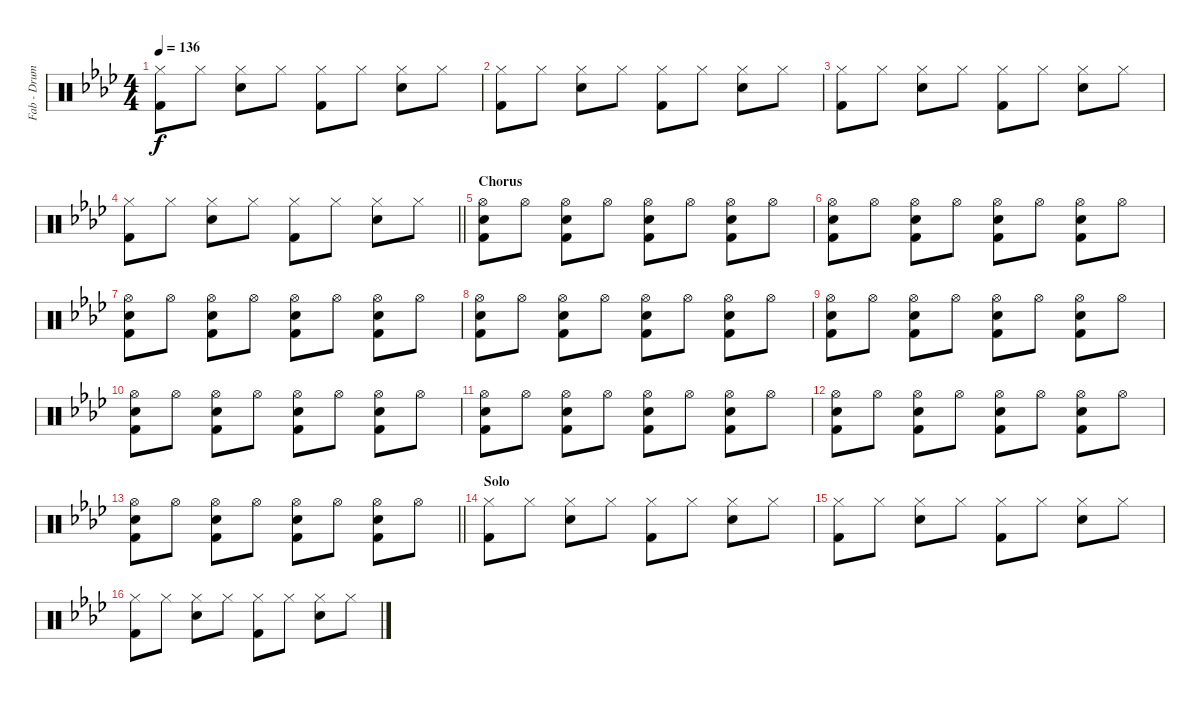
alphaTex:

\track ("Fab - Drums MIDI" "Fab - Drum") {instrument percussion}
\staff {score}
\articulation defaults
\ts (4 4)
\tempo 136
\clef neutral
\ks ab
("Hi-Hat (closed)" "Kick (hit) 2").8{dy f} "Hi-Hat (closed)".8 ("Hi-Hat (closed)" "Snare (hit) 2").8 "Hi-Hat (closed)".8 ("Hi-Hat (closed)" "Kick (hit) 2").8 "Hi-Hat (closed)".8 ("Hi-Hat (closed)" "Snare (hit) 2").8 "Hi-Hat (closed)".8 |
("Hi-Hat (closed)" "Kick (hit) 2").8 "Hi-Hat (closed)".8 ("Hi-Hat (closed)" "Snare (hit) 2").8 "Hi-Hat (closed)".8 ("Hi-Hat (closed)" "Kick (hit) 2").8 "Hi-Hat (closed)".8 ("Hi-Hat (closed)" "Snare (hit) 2").8 "Hi-Hat (closed)".8 |
("Hi-Hat (closed)" "Kick (hit) 2").8 "Hi-Hat (closed)".8 ("Hi-Hat (closed)" "Snare (hit) 2").8 "Hi-Hat (closed)".8 ("Hi-Hat (closed)" "Kick (hit) 2").8 "Hi-Hat (closed)".8 ("Hi-Hat (closed)" "Snare (hit) 2").8 "Hi-Hat (closed)".8 |
\barLineRight lightlight
("Hi-Hat (closed)" "Kick (hit) 2").8 "Hi-Hat (closed)".8 ("Hi-Hat (closed)" "Snare (hit) 2").8 "Hi-Hat (closed)".8 ("Hi-Hat (closed)" "Kick (hit) 2").8 "Hi-Hat (closed)".8 ("Hi-Hat (closed)" "Snare (hit) 2").8 "Hi-Hat (closed)".8 |
\section ("" "Chorus")
("Hi-Hat (open)" "Snare (hit) 2" "Kick (hit) 2").8 "Hi-Hat (open)".8 ("Hi-Hat (open)" "Snare (hit) 2" "Kick (hit) 2").8 "Hi-Hat (open)".8 ("Hi-Hat (open)" "Snare (hit) 2" "Kick (hit) 2").8 "Hi-Hat (open)".8 ("Hi-Hat (open)" "Snare (hit) 2" "Kick (hit) 2").8 "Hi-Hat (open)".8 |
("Hi-Hat (open)" "Snare (hit) 2" "Kick (hit) 2").8 "Hi-Hat (open)".8 ("Hi-Hat (open)" "Snare (hit) 2" "Kick (hit) 2").8 "Hi-Hat (open)".8 ("Hi-Hat (open)" "Snare (hit) 2" "Kick (hit) 2").8 "Hi-Hat (open)".8 ("Hi-Hat (open)" "Snare (hit) 2" "Kick (hit) 2").8 "Hi-Hat (open)".8 |
("Hi-Hat (open)" "Snare (hit) 2" "Kick (hit) 2").8 "Hi-Hat (open)".8 ("Hi-Hat (open)" "Snare (hit) 2" "Kick (hit) 2").8 "Hi-Hat (open)".8 ("Hi-Hat (open)" "Snare (hit) 2" "Kick (hit) 2").8 "Hi-Hat (open)".8 ("Hi-Hat (open)" "Snare (hit) 2" "Kick (hit) 2").8 "Hi-Hat (open)".8 |
("Hi-Hat (open)" "Snare (hit) 2" "Kick (hit) 2").8 "Hi-Hat (open)".8 ("Hi-Hat (open)" "Snare (hit) 2" "Kick (hit) 2").8 "Hi-Hat (open)".8 ("Hi-Hat (open)" "Snare (hit) 2" "Kick (hit) 2").8 "Hi-Hat (open)".8 ("Hi-Hat (open)" "Snare (hit) 2" "Kick (hit) 2").8 "Hi-Hat (open)".8 |
("Hi-Hat (open)" "Snare (hit) 2" "Kick (hit) 2").8 "Hi-Hat (open)".8 ("Hi-Hat (open)" "Snare (hit) 2" "Kick (hit) 2").8 "Hi-Hat (open)".8 ("Hi-Hat (open)" "Snare (hit) 2" "Kick (hit) 2").8 "Hi-Hat (open)".8 ("Hi-Hat (open)" "Snare (hit) 2" "Kick (hit) 2").8 "Hi-Hat (open)".8 |
("Hi-Hat (open)" "Snare (hit) 2" "Kick (hit) 2").8 "Hi-Hat (open)".8 ("Hi-Hat (open)" "Snare (hit) 2" "Kick (hit) 2").8 "Hi-Hat (open)".8 ("Hi-Hat (open)" "Snare (hit) 2" "Kick (hit) 2").8 "Hi-Hat (open)".8 ("Hi-Hat (open)" "Snare (hit) 2" "Kick (hit) 2").8 "Hi-Hat (open)".8 |
("Hi-Hat (open)" "Snare (hit) 2" "Kick (hit) 2").8 "Hi-Hat (open)".8 ("Hi-Hat (open)" "Snare (hit) 2" "Kick (hit) 2").8 "Hi-Hat (open)".8 ("Hi-Hat (open)" "Snare (hit) 2" "Kick (hit) 2").8 "Hi-Hat (open)".8 ("Hi-Hat (open)" "Snare (hit) 2" "Kick (hit) 2").8 "Hi-Hat (open)".8 |
("Hi-Hat (open)" "Snare (hit) 2" "Kick (hit) 2").8 "Hi-Hat (open)".8 ("Hi-Hat (open)" "Snare (hit) 2" "Kick (hit) 2").8 "Hi-Hat (open)".8 ("Hi-Hat (open)" "Snare (hit) 2" "Kick (hit) 2").8 "Hi-Hat (open)".8 ("Hi-Hat (open)" "Snare (hit) 2" "Kick (hit) 2").8 "Hi-Hat (open)".8 |
\barLineRight lightlight
("Hi-Hat (open)" "Snare (hit) 2" "Kick (hit) 2").8 "Hi-Hat (open)".8 ("Hi-Hat (open)" "Snare (hit) 2" "Kick (hit) 2").8 "Hi-Hat (open)".8 ("Hi-Hat (open)" "Snare (hit) 2" "Kick (hit) 2").8 "Hi-Hat (open)".8 ("Hi-Hat (open)" "Snare (hit) 2" "Kick (hit) 2").8 "Hi-Hat (open)".8 |
\section ("" "Solo")
("Hi-Hat (closed)" "Kick (hit) 2").8 "Hi-Hat (closed)".8 ("Hi-Hat (closed)" "Snare (hit) 2").8 "Hi-Hat (closed)".8 ("Hi-Hat (closed)" "Kick (hit) 2").8 "Hi-Hat (closed)".8 ("Hi-Hat (closed)" "Snare (hit) 2").8 "Hi-Hat (closed)".8 |
("Hi-Hat (closed)" "Kick (hit) 2").8 "Hi-Hat (closed)".8 ("Hi-Hat (closed)" "Snare (hit) 2").8 "Hi-Hat (closed)".8 ("Hi-Hat (closed)" "Kick (hit) 2").8 "Hi-Hat (closed)".8 ("Hi-Hat (closed)" "Snare (hit) 2").8 "Hi-Hat (closed)".8 |
("Hi-Hat (closed)" "Kick (hit) 2").8 "Hi-Hat (closed)".8 ("Hi-Hat (closed)" "Snare (hit) 2").8 "Hi-Hat (closed)".8 ("Hi-Hat (closed)" "Kick (hit) 2").8 "Hi-Hat (closed)".8 ("Hi-Hat (closed)" "Snare (hit) 2").8 "Hi-Hat (closed)".8
